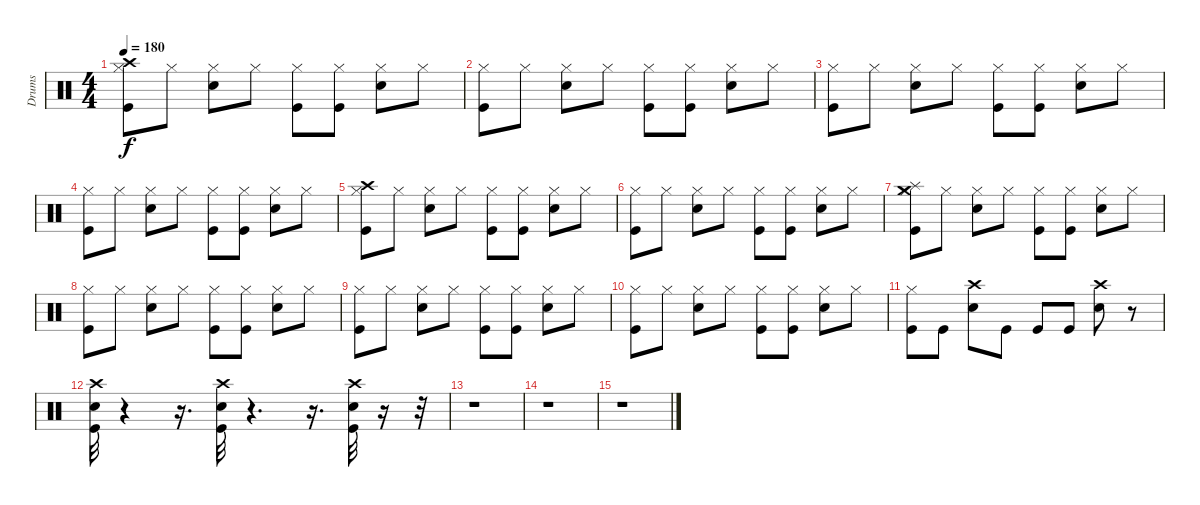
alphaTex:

\track ("Drums" "Drums") {instrument percussion}
\staff {score}
\articulation defaults
\ts (4 4)
\tempo 180
\clef neutral
\ks c
("Crash high (hit)" "Hi-Hat (closed)" "Kick (hit)").8{dy f} "Hi-Hat (closed)".8 ("Hi-Hat (closed)" "Electric Snare (hit)").8 "Hi-Hat (closed)".8 ("Kick (hit)" "Hi-Hat (closed)").8 ("Hi-Hat (closed)" "Kick (hit)").8 ("Hi-Hat (closed)" "Electric Snare (hit)").8 "Hi-Hat (closed)".8 |
("Hi-Hat (closed)" "Kick (hit)").8 "Hi-Hat (closed)".8 ("Hi-Hat (closed)" "Electric Snare (hit)").8 "Hi-Hat (closed)".8 ("Kick (hit)" "Hi-Hat (closed)").8 ("Hi-Hat (closed)" "Kick (hit)").8 ("Hi-Hat (closed)" "Electric Snare (hit)").8 "Hi-Hat (closed)".8 |
("Hi-Hat (closed)" "Kick (hit)").8 "Hi-Hat (closed)".8 ("Hi-Hat (closed)" "Electric Snare (hit)").8 "Hi-Hat (closed)".8 ("Kick (hit)" "Hi-Hat (closed)").8 ("Hi-Hat (closed)" "Kick (hit)").8 ("Hi-Hat (closed)" "Electric Snare (hit)").8 "Hi-Hat (closed)".8 |
("Hi-Hat (closed)" "Kick (hit)").8 "Hi-Hat (closed)".8 ("Hi-Hat (closed)" "Electric Snare (hit)").8 "Hi-Hat (closed)".8 ("Kick (hit)" "Hi-Hat (closed)").8 ("Hi-Hat (closed)" "Kick (hit)").8 ("Hi-Hat (closed)" "Electric Snare (hit)").8 "Hi-Hat (closed)".8 |
("Crash high (hit)" "Hi-Hat (closed)" "Kick (hit)").8 "Hi-Hat (closed)".8 ("Hi-Hat (closed)" "Electric Snare (hit)").8 "Hi-Hat (closed)".8 ("Kick (hit)" "Hi-Hat (closed)").8 ("Hi-Hat (closed)" "Kick (hit)").8 ("Hi-Hat (closed)" "Electric Snare (hit)").8 "Hi-Hat (closed)".8 |
("Hi-Hat (closed)" "Kick (hit)").8 "Hi-Hat (closed)".8 ("Hi-Hat (closed)" "Electric Snare (hit)").8 "Hi-Hat (closed)".8 ("Kick (hit)" "Hi-Hat (closed)").8 ("Hi-Hat (closed)" "Kick (hit)").8 ("Hi-Hat (closed)" "Electric Snare (hit)").8 "Hi-Hat (closed)".8 |
("Crash medium (hit)" "Splash (hit)" "Hi-Hat (closed)" "Kick (hit)").8 "Hi-Hat (closed)".8 ("Hi-Hat (closed)" "Electric Snare (hit)").8 "Hi-Hat (closed)".8 ("Kick (hit)" "Hi-Hat (closed)").8 ("Hi-Hat (closed)" "Kick (hit)").8 ("Hi-Hat (closed)" "Electric Snare (hit)").8 "Hi-Hat (closed)".8 |
("Hi-Hat (closed)" "Kick (hit)").8 "Hi-Hat (closed)".8 ("Hi-Hat (closed)" "Electric Snare (hit)").8 "Hi-Hat (closed)".8 ("Kick (hit)" "Hi-Hat (closed)").8 ("Hi-Hat (closed)" "Kick (hit)").8 ("Hi-Hat (closed)" "Electric Snare (hit)").8 "Hi-Hat (closed)".8 |
("Hi-Hat (closed)" "Kick (hit)").8 "Hi-Hat (closed)".8 ("Hi-Hat (closed)" "Electric Snare (hit)").8 "Hi-Hat (closed)".8 ("Kick (hit)" "Hi-Hat (closed)").8 ("Hi-Hat (closed)" "Kick (hit)").8 ("Hi-Hat (closed)" "Electric Snare (hit)").8 "Hi-Hat (closed)".8 |
("Hi-Hat (closed)" "Kick (hit)").8 "Hi-Hat (closed)".8 ("Hi-Hat (closed)" "Electric Snare (hit)").8 "Hi-Hat (closed)".8 ("Kick (hit)" "Hi-Hat (closed)").8 ("Hi-Hat (closed)" "Kick (hit)").8 ("Hi-Hat (closed)" "Electric Snare (hit)").8 "Hi-Hat (closed)".8 |
("Hi-Hat (closed)" "Kick (hit)").8 "Kick (hit)".8 ("Crash high (hit)" "Electric Snare (hit)").8 "Kick (hit)".8 "Kick (hit)".8 "Kick (hit)".8 ("Crash high (hit)" "Electric Snare (hit)").8 r.8 |
("Kick (hit)" "Crash high (hit)" "Electric Snare (hit)").32 r.4 r.16{d} ("Kick (hit)" "Crash high (hit)" "Electric Snare (hit)").32 r.4{d} r.16{d} ("Kick (hit)" "Crash high (hit)" "Electric Snare (hit)").32 r.16 r.32 |
r.1 |
r.1 |
r.1
